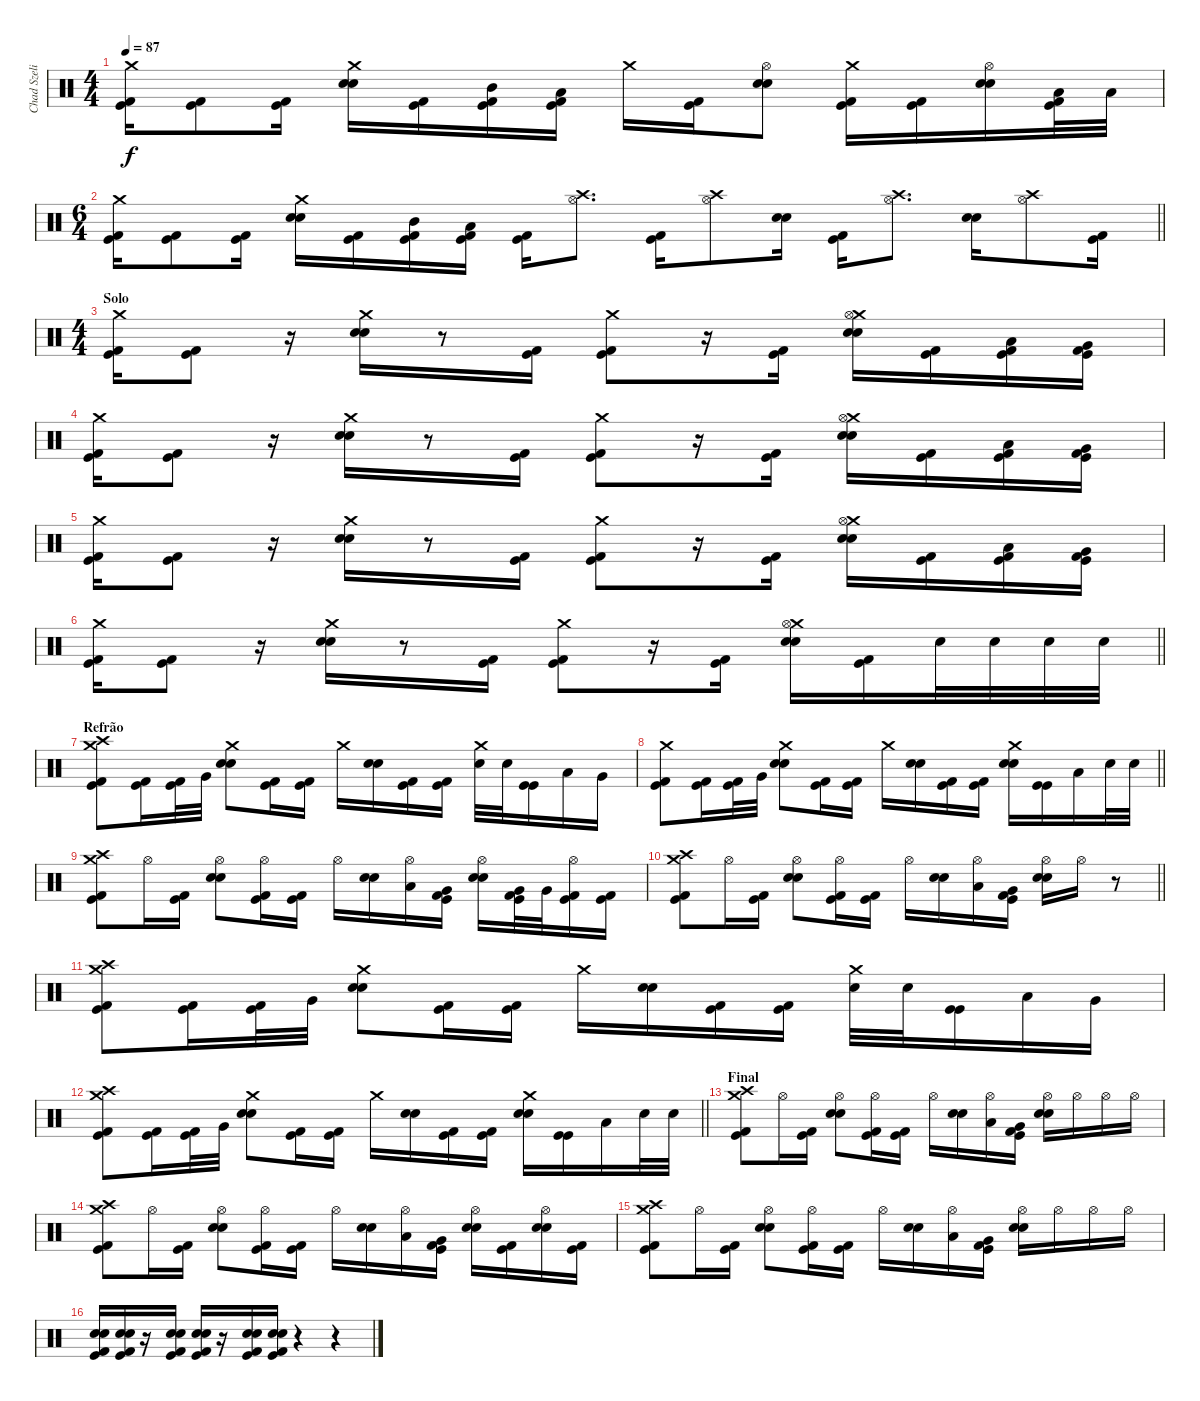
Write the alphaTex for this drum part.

\track ("Chad Szeliga" "Chad Szeli") {instrument percussion}
\staff {score}
\articulation defaults
\ts (4 4)
\tempo 87
\clef neutral
\ks c
("Crash medium (hit)" "Kick (hit) 2" "Kick (hit)").16{dy f} ("Kick (hit) 2" "Kick (hit)").8 ("Kick (hit) 2" "Kick (hit)").16 ("Crash medium (hit)" "Snare (hit) 2" "Snare (hit) 2").16 ("Kick (hit) 2" "Kick (hit)").16 ("Kick (hit) 2" "Kick (hit)" "Mid Tom (hit)").16 ("Kick (hit) 2" "Kick (hit)" "Low Tom (hit)").16 "Crash medium (hit)".16 ("Kick (hit) 2" "Kick (hit)").16 ("Snare (hit) 2" "Snare (hit) 2" "Hi-Hat (open)").8 ("Crash medium (hit)" "Kick (hit) 2" "Kick (hit)").16 ("Kick (hit) 2" "Kick (hit)").16 ("Snare (hit) 2" "Snare (hit) 2" "Hi-Hat (open)").16 ("Kick (hit) 2" "Kick (hit)" "Low Tom (hit)").32 "Low Tom (hit)".32 |
\ts (6 4)
\barLineRight lightlight
("Crash medium (hit)" "Kick (hit) 2" "Kick (hit)").16 ("Kick (hit) 2" "Kick (hit)").8 ("Kick (hit) 2" "Kick (hit)").16 ("Crash medium (hit)" "Snare (hit) 2" "Snare (hit) 2").16 ("Kick (hit) 2" "Kick (hit)").16 ("Kick (hit) 2" "Kick (hit)" "Mid Tom (hit)").16 ("Kick (hit) 2" "Kick (hit)" "Low Tom (hit)").16 ("Kick (hit) 2" "Kick (hit)").16 ("Crash high (hit)" "Hi-Hat (open)").8{d} ("Kick (hit) 2" "Kick (hit)").16 ("Crash high (hit)" "Hi-Hat (open)").8 ("Snare (hit) 2" "Snare (hit) 2").16 ("Kick (hit) 2" "Kick (hit)").16 ("Crash high (hit)" "Hi-Hat (open)").8{d} ("Snare (hit) 2" "Snare (hit) 2").16 ("Crash high (hit)" "Hi-Hat (open)").8 ("Kick (hit) 2" "Kick (hit)").16 |
\ts (4 4)
\section ("" "Solo")
("Crash medium (hit)" "Kick (hit) 2" "Kick (hit)").16 ("Kick (hit) 2" "Kick (hit)").8 r.16 ("Crash medium (hit)" "Snare (hit) 2" "Snare (hit) 2").16 r.8 ("Kick (hit) 2" "Kick (hit)").16 ("Crash medium (hit)" "Kick (hit) 2" "Kick (hit)").8 r.16 ("Kick (hit) 2" "Kick (hit)").16{beam Down} ("Crash medium (hit)" "Snare (hit) 2" "Snare (hit) 2" "Hi-Hat (open)").16 ("Kick (hit) 2" "Kick (hit)").16 ("Kick (hit) 2" "Kick (hit)" "Low Tom (hit)").16 ("Kick (hit) 2" "Kick (hit)" "Very Low Tom (hit)").16 |
("Crash medium (hit)" "Kick (hit) 2" "Kick (hit)").16 ("Kick (hit) 2" "Kick (hit)").8 r.16 ("Crash medium (hit)" "Snare (hit) 2" "Snare (hit) 2").16 r.8 ("Kick (hit) 2" "Kick (hit)").16 ("Crash medium (hit)" "Kick (hit) 2" "Kick (hit)").8 r.16 ("Kick (hit) 2" "Kick (hit)").16{beam Down} ("Crash medium (hit)" "Snare (hit) 2" "Snare (hit) 2" "Hi-Hat (open)").16 ("Kick (hit) 2" "Kick (hit)").16 ("Kick (hit) 2" "Kick (hit)" "Low Tom (hit)").16 ("Kick (hit) 2" "Kick (hit)" "Very Low Tom (hit)").16 |
("Crash medium (hit)" "Kick (hit) 2" "Kick (hit)").16 ("Kick (hit) 2" "Kick (hit)").8 r.16 ("Crash medium (hit)" "Snare (hit) 2" "Snare (hit) 2").16 r.8 ("Kick (hit) 2" "Kick (hit)").16 ("Crash medium (hit)" "Kick (hit) 2" "Kick (hit)").8 r.16 ("Kick (hit) 2" "Kick (hit)").16{beam Down} ("Crash medium (hit)" "Snare (hit) 2" "Snare (hit) 2" "Hi-Hat (open)").16 ("Kick (hit) 2" "Kick (hit)").16 ("Kick (hit) 2" "Kick (hit)" "Low Tom (hit)").16 ("Kick (hit) 2" "Kick (hit)" "Very Low Tom (hit)").16 |
\barLineRight lightlight
("Crash medium (hit)" "Kick (hit) 2" "Kick (hit)").16 ("Kick (hit) 2" "Kick (hit)").8 r.16 ("Crash medium (hit)" "Snare (hit) 2" "Snare (hit) 2").16 r.8 ("Kick (hit) 2" "Kick (hit)").16 ("Crash medium (hit)" "Kick (hit) 2" "Kick (hit)").8 r.16 ("Kick (hit) 2" "Kick (hit)").16{beam Down} ("Crash medium (hit)" "Snare (hit) 2" "Snare (hit) 2" "Hi-Hat (open)").16 ("Kick (hit) 2" "Kick (hit)").16 "Snare (hit) 2".32 "Snare (hit) 2".32 "Snare (hit) 2".32 "Snare (hit) 2".32 |
\section ("" "Refrão")
("Crash high (hit)" "Kick (hit) 2" "Kick (hit)" "Crash medium (hit)").8 ("Kick (hit) 2" "Kick (hit)").16 ("Kick (hit) 2" "Kick (hit)").32 "Very Low Tom (hit)".32 ("Crash medium (hit)" "Snare (hit) 2" "Snare (hit) 2").8 ("Kick (hit) 2" "Kick (hit)").16 ("Kick (hit) 2" "Kick (hit)").16 "Crash medium (hit)".16 ("Snare (hit) 2" "Snare (hit) 2").16 ("Kick (hit) 2" "Kick (hit)").16 ("Kick (hit) 2" "Kick (hit)").16 ("Crash medium (hit)" "Snare (hit) 2").32 "Snare (hit) 2".32 ("Kick (hit)" "Kick (hit)").16 "Low Tom (hit)".16 "Very Low Tom (hit)".16 |
\barLineRight lightlight
("Crash medium (hit)" "Kick (hit) 2" "Kick (hit)").8 ("Kick (hit) 2" "Kick (hit)").16 ("Kick (hit) 2" "Kick (hit)").32 "Very Low Tom (hit)".32 ("Crash medium (hit)" "Snare (hit) 2" "Snare (hit) 2").8 ("Kick (hit) 2" "Kick (hit)").16 ("Kick (hit) 2" "Kick (hit)").16 "Crash medium (hit)".16 ("Snare (hit) 2" "Snare (hit) 2").16 ("Kick (hit) 2" "Kick (hit)").16 ("Kick (hit) 2" "Kick (hit)").16 ("Crash medium (hit)" "Snare (hit) 2" "Snare (hit) 2").16 ("Kick (hit)" "Kick (hit)").16 "Low Tom (hit)".16 "Snare (hit) 2".32 "Snare (hit) 2".32 |
("Crash high (hit)" "Kick (hit) 2" "Kick (hit)" "Crash medium (hit)").8 "Hi-Hat (open)".16 ("Kick (hit) 2" "Kick (hit)").16 ("Snare (hit) 2" "Snare (hit) 2" "Hi-Hat (open)").8 ("Kick (hit) 2" "Kick (hit)" "Hi-Hat (open)").16 ("Kick (hit) 2" "Kick (hit)").16 "Hi-Hat (open)".16 ("Snare (hit) 2" "Snare (hit) 2").16 ("Low Tom (hit)" "Hi-Hat (open)").16 ("Kick (hit) 2" "Kick (hit)" "Very Low Tom (hit)").16 ("Snare (hit) 2" "Snare (hit) 2" "Hi-Hat (open)").16 ("Kick (hit) 2" "Kick (hit)" "Very Low Tom (hit)").32 "Very Low Tom (hit)".32 ("Kick (hit) 2" "Kick (hit)" "Hi-Hat (open)").16 ("Kick (hit) 2" "Kick (hit)").16 |
\barLineRight lightlight
("Crash high (hit)" "Kick (hit) 2" "Kick (hit)" "Crash medium (hit)").8 "Hi-Hat (open)".16 ("Kick (hit) 2" "Kick (hit)").16 ("Snare (hit) 2" "Snare (hit) 2" "Hi-Hat (open)").8 ("Kick (hit) 2" "Kick (hit)" "Hi-Hat (open)").16 ("Kick (hit) 2" "Kick (hit)").16 "Hi-Hat (open)".16 ("Snare (hit) 2" "Snare (hit) 2").16 ("Low Tom (hit)" "Hi-Hat (open)").16 ("Kick (hit) 2" "Kick (hit)" "Very Low Tom (hit)").16 ("Snare (hit) 2" "Snare (hit) 2" "Hi-Hat (open)").16 "Hi-Hat (open)".16 r.8 |
("Crash high (hit)" "Kick (hit) 2" "Kick (hit)" "Crash medium (hit)").8 ("Kick (hit) 2" "Kick (hit)").16 ("Kick (hit) 2" "Kick (hit)").32 "Very Low Tom (hit)".32 ("Crash medium (hit)" "Snare (hit) 2" "Snare (hit) 2").8 ("Kick (hit) 2" "Kick (hit)").16 ("Kick (hit) 2" "Kick (hit)").16 "Crash medium (hit)".16 ("Snare (hit) 2" "Snare (hit) 2").16 ("Kick (hit) 2" "Kick (hit)").16 ("Kick (hit) 2" "Kick (hit)").16 ("Crash medium (hit)" "Snare (hit) 2").32 "Snare (hit) 2".32 ("Kick (hit)" "Kick (hit)").16 "Low Tom (hit)".16 "Very Low Tom (hit)".16 |
\barLineRight lightlight
("Crash high (hit)" "Kick (hit) 2" "Kick (hit)" "Crash medium (hit)").8 ("Kick (hit) 2" "Kick (hit)").16 ("Kick (hit) 2" "Kick (hit)").32 "Very Low Tom (hit)".32 ("Crash medium (hit)" "Snare (hit) 2" "Snare (hit) 2").8 ("Kick (hit) 2" "Kick (hit)").16 ("Kick (hit) 2" "Kick (hit)").16 "Crash medium (hit)".16 ("Snare (hit) 2" "Snare (hit) 2").16 ("Kick (hit) 2" "Kick (hit)").16 ("Kick (hit) 2" "Kick (hit)").16 ("Crash medium (hit)" "Snare (hit) 2" "Snare (hit) 2").16 ("Kick (hit)" "Kick (hit)").16 "Low Tom (hit)".16 "Snare (hit) 2".32 "Snare (hit) 2".32 |
\section ("" "Final")
("Crash high (hit)" "Kick (hit) 2" "Kick (hit)" "Crash medium (hit)").8 "Hi-Hat (open)".16 ("Kick (hit) 2" "Kick (hit)").16 ("Snare (hit) 2" "Snare (hit) 2" "Hi-Hat (open)").8 ("Kick (hit) 2" "Kick (hit)" "Hi-Hat (open)").16 ("Kick (hit) 2" "Kick (hit)").16 "Hi-Hat (open)".16 ("Snare (hit) 2" "Snare (hit) 2").16 ("Low Tom (hit)" "Hi-Hat (open)").16 ("Kick (hit) 2" "Kick (hit)" "Very Low Tom (hit)").16 ("Snare (hit) 2" "Snare (hit) 2" "Hi-Hat (open)").16 "Hi-Hat (open)".16 "Hi-Hat (open)".16 "Hi-Hat (open)".16 |
("Crash high (hit)" "Kick (hit) 2" "Kick (hit)" "Crash medium (hit)").8 "Hi-Hat (open)".16 ("Kick (hit) 2" "Kick (hit)").16 ("Snare (hit) 2" "Snare (hit) 2" "Hi-Hat (open)").8 ("Kick (hit) 2" "Kick (hit)" "Hi-Hat (open)").16 ("Kick (hit) 2" "Kick (hit)").16 "Hi-Hat (open)".16 ("Snare (hit) 2" "Snare (hit) 2").16 ("Low Tom (hit)" "Hi-Hat (open)").16 ("Kick (hit) 2" "Kick (hit)" "Very Low Tom (hit)").16 ("Snare (hit) 2" "Snare (hit) 2" "Hi-Hat (open)").16 ("Kick (hit) 2" "Kick (hit)").16 ("Snare (hit) 2" "Snare (hit) 2" "Hi-Hat (open)").16 ("Kick (hit) 2" "Kick (hit)").16 |
("Crash high (hit)" "Kick (hit) 2" "Kick (hit)" "Crash medium (hit)").8 "Hi-Hat (open)".16 ("Kick (hit) 2" "Kick (hit)").16 ("Snare (hit) 2" "Snare (hit) 2" "Hi-Hat (open)").8 ("Kick (hit) 2" "Kick (hit)" "Hi-Hat (open)").16 ("Kick (hit) 2" "Kick (hit)").16 "Hi-Hat (open)".16 ("Snare (hit) 2" "Snare (hit) 2").16 ("Low Tom (hit)" "Hi-Hat (open)").16 ("Kick (hit) 2" "Kick (hit)" "Very Low Tom (hit)").16 ("Snare (hit) 2" "Snare (hit) 2" "Hi-Hat (open)").16 "Hi-Hat (open)".16 "Hi-Hat (open)".16 "Hi-Hat (open)".16 |
("Kick (hit) 2" "Kick (hit)" "Snare (hit) 2" "Snare (hit) 2").16 ("Kick (hit) 2" "Kick (hit)" "Snare (hit) 2" "Snare (hit) 2").16 r.16 ("Kick (hit) 2" "Kick (hit)" "Snare (hit) 2" "Snare (hit) 2").16 ("Kick (hit) 2" "Kick (hit)" "Snare (hit) 2" "Snare (hit) 2").16 r.16 ("Kick (hit) 2" "Kick (hit)" "Snare (hit) 2" "Snare (hit) 2").16 ("Kick (hit) 2" "Kick (hit)" "Snare (hit) 2" "Snare (hit) 2").16 r.4 r.4
